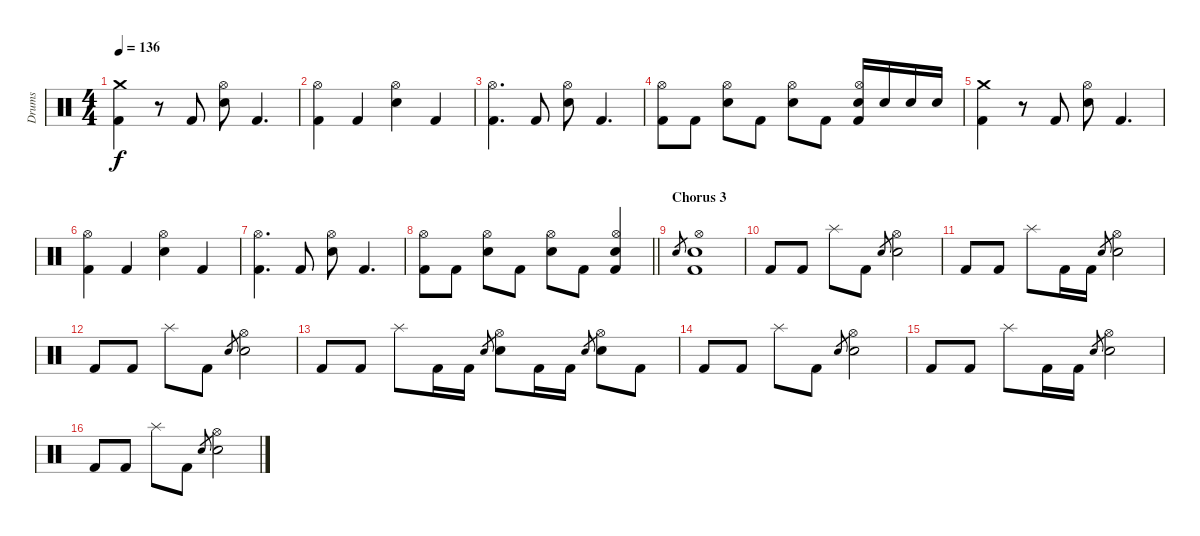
\track ("Drums" "Drums") {instrument percussion}
\staff {score}
\articulation defaults
\ts (4 4)
\tempo 136
\clef neutral
\ks c
("Crash medium (hit)" "Kick (hit) 2").4{dy f} r.8 "Kick (hit) 2".8 ("Hi-Hat (open)" "Snare (hit) 2").8 "Kick (hit) 2".4{d} |
("Hi-Hat (open)" "Kick (hit) 2").4 "Kick (hit) 2".4 ("Hi-Hat (open)" "Snare (hit) 2").4 "Kick (hit) 2".4 |
("Hi-Hat (open)" "Kick (hit) 2").4{d} "Kick (hit) 2".8 ("Hi-Hat (open)" "Snare (hit) 2").8 "Kick (hit) 2".4{d} |
("Hi-Hat (open)" "Kick (hit) 2").8 "Kick (hit) 2".8 ("Hi-Hat (open)" "Snare (hit) 2").8 "Kick (hit) 2".8 ("Hi-Hat (open)" "Snare (hit) 2").8 "Kick (hit) 2".8 ("Hi-Hat (open)" "Snare (hit) 2" "Kick (hit) 2").16 "Snare (hit) 2".16 "Snare (hit) 2".16 "Snare (hit) 2".16 |
("Crash medium (hit)" "Kick (hit) 2").4 r.8 "Kick (hit) 2".8 ("Hi-Hat (open)" "Snare (hit) 2").8 "Kick (hit) 2".4{d} |
("Hi-Hat (open)" "Kick (hit) 2").4 "Kick (hit) 2".4 ("Hi-Hat (open)" "Snare (hit) 2").4 "Kick (hit) 2".4 |
("Hi-Hat (open)" "Kick (hit) 2").4{d} "Kick (hit) 2".8 ("Hi-Hat (open)" "Snare (hit) 2").8 "Kick (hit) 2".4{d} |
\barLineRight lightlight
("Hi-Hat (open)" "Kick (hit) 2").8 "Kick (hit) 2".8 ("Hi-Hat (open)" "Snare (hit) 2").8 "Kick (hit) 2".8 ("Hi-Hat (open)" "Snare (hit) 2").8 "Kick (hit) 2".8 ("Hi-Hat (open)" "Snare (hit) 2" "Kick (hit) 2").4 |
\section ("" "Chorus 3")
"Snare (hit) 2".8{gr} ("Hi-Hat (open)" "Snare (hit) 2" "Kick (hit) 2").1 |
"Kick (hit) 2".8 "Kick (hit) 2".8 "Splash (hit)".8 "Kick (hit) 2".8 "Snare (hit) 2".8{gr} ("Hi-Hat (open)" "Snare (hit) 2").2 |
"Kick (hit) 2".8 "Kick (hit) 2".8 "Splash (hit)".8 "Kick (hit) 2".16 "Kick (hit) 2".16 "Snare (hit) 2".8{gr} ("Hi-Hat (open)" "Snare (hit) 2").2 |
"Kick (hit) 2".8 "Kick (hit) 2".8 "Splash (hit)".8 "Kick (hit) 2".8 "Snare (hit) 2".8{gr} ("Hi-Hat (open)" "Snare (hit) 2").2 |
"Kick (hit) 2".8 "Kick (hit) 2".8 "Splash (hit)".8 "Kick (hit) 2".16 "Kick (hit) 2".16 "Snare (hit) 2".8{gr} ("Hi-Hat (open)" "Snare (hit) 2").8 "Kick (hit) 2".16 "Kick (hit) 2".16 "Snare (hit) 2".8{gr} ("Hi-Hat (open)" "Snare (hit) 2").8 "Kick (hit) 2".8 |
"Kick (hit) 2".8 "Kick (hit) 2".8 "Splash (hit)".8 "Kick (hit) 2".8 "Snare (hit) 2".8{gr} ("Hi-Hat (open)" "Snare (hit) 2").2 |
"Kick (hit) 2".8 "Kick (hit) 2".8 "Splash (hit)".8 "Kick (hit) 2".16 "Kick (hit) 2".16 "Snare (hit) 2".8{gr} ("Hi-Hat (open)" "Snare (hit) 2").2 |
"Kick (hit) 2".8 "Kick (hit) 2".8 "Splash (hit)".8 "Kick (hit) 2".8 "Snare (hit) 2".8{gr} ("Hi-Hat (open)" "Snare (hit) 2").2
